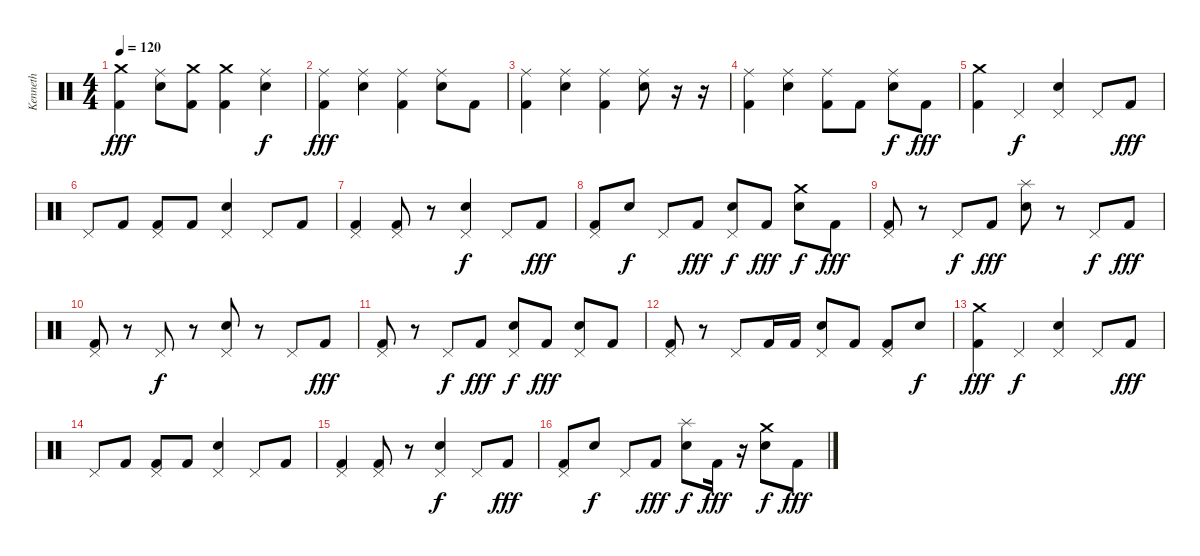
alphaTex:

\track ("Kenneth" "Kenneth") {instrument percussion}
\staff {score}
\articulation defaults
\ts (4 4)
\tempo 120
\clef neutral
\ks c
("Crash medium (hit)" "Kick (hit) 2").4{dy fff} ("Ride (middle)" "Electric Snare (hit)").8 ("Crash medium (hit)" "Kick (hit) 2").8 ("Crash medium (hit)" "Kick (hit) 2").4 ("Ride (middle)" "Electric Snare (hit)").4{dy f} |
("Ride (middle)" "Kick (hit) 2").4{dy fff} ("Ride (middle)" "Electric Snare (hit)").4 ("Ride (middle)" "Kick (hit) 2").4 ("Ride (middle)" "Electric Snare (hit)").8 "Kick (hit) 2".8 |
("Ride (middle)" "Kick (hit) 2").4 ("Ride (middle)" "Electric Snare (hit)").4 ("Ride (middle)" "Kick (hit) 2").4 ("Ride (middle)" "Electric Snare (hit)").8 r.16 r.16 |
("Ride (middle)" "Kick (hit) 2").4 ("Ride (middle)" "Electric Snare (hit)").4 ("Ride (middle)" "Kick (hit) 2").8 "Kick (hit) 2".8 ("Ride (middle)" "Electric Snare (hit)").8{dy f} "Kick (hit) 2".8{dy fff} |
("Crash medium (hit)" "Kick (hit) 2").4 "Pedal Hi-Hat (hit)".4{dy f} ("Pedal Hi-Hat (hit)" "Electric Snare (hit)").4 "Pedal Hi-Hat (hit)".8 "Kick (hit) 2".8{dy fff} |
"Pedal Hi-Hat (hit)".8 "Kick (hit) 2".8 ("Pedal Hi-Hat (hit)" "Kick (hit) 2").8 "Kick (hit) 2".8 ("Pedal Hi-Hat (hit)" "Electric Snare (hit)").4 "Pedal Hi-Hat (hit)".8 "Kick (hit) 2".8 |
("Pedal Hi-Hat (hit)" "Kick (hit) 2").4 ("Pedal Hi-Hat (hit)" "Kick (hit) 2").8 r.8 ("Pedal Hi-Hat (hit)" "Electric Snare (hit)").4{dy f} "Pedal Hi-Hat (hit)".8 "Kick (hit) 2".8{dy fff} |
("Pedal Hi-Hat (hit)" "Kick (hit) 2").8 "Electric Snare (hit)".8{dy f} "Pedal Hi-Hat (hit)".8 "Kick (hit) 2".8{dy fff} ("Pedal Hi-Hat (hit)" "Electric Snare (hit)").8{dy f} "Kick (hit) 2".8{dy fff} ("Crash medium (hit)" "Electric Snare (hit)").8{dy f} "Kick (hit) 2".8{dy fff} |
("Pedal Hi-Hat (hit)" "Kick (hit) 2").8 r.8 "Pedal Hi-Hat (hit)".8{dy f} "Kick (hit) 2".8{dy fff} ("Splash (hit)" "Electric Snare (hit)").8 r.8 "Pedal Hi-Hat (hit)".8{dy f} "Kick (hit) 2".8{dy fff} |
("Pedal Hi-Hat (hit)" "Kick (hit) 2").8 r.8 "Pedal Hi-Hat (hit)".8{dy f} r.8 ("Pedal Hi-Hat (hit)" "Electric Snare (hit)").8 r.8 "Pedal Hi-Hat (hit)".8 "Kick (hit) 2".8{dy fff} |
("Pedal Hi-Hat (hit)" "Kick (hit) 2").8 r.8 "Pedal Hi-Hat (hit)".8{dy f} "Kick (hit) 2".8{dy fff} ("Pedal Hi-Hat (hit)" "Electric Snare (hit)").8{dy f} "Kick (hit) 2".8{dy fff} ("Pedal Hi-Hat (hit)" "Electric Snare (hit)").8 "Kick (hit) 2".8 |
("Pedal Hi-Hat (hit)" "Kick (hit) 2").8 r.8 "Pedal Hi-Hat (hit)".8 "Kick (hit) 2".16 "Kick (hit) 2".16 ("Pedal Hi-Hat (hit)" "Electric Snare (hit)").8 "Kick (hit) 2".8 ("Pedal Hi-Hat (hit)" "Kick (hit) 2").8 "Electric Snare (hit)".8{dy f} |
("Crash medium (hit)" "Kick (hit) 2").4{dy fff} "Pedal Hi-Hat (hit)".4{dy f} ("Pedal Hi-Hat (hit)" "Electric Snare (hit)").4 "Pedal Hi-Hat (hit)".8 "Kick (hit) 2".8{dy fff} |
"Pedal Hi-Hat (hit)".8 "Kick (hit) 2".8 ("Pedal Hi-Hat (hit)" "Kick (hit) 2").8 "Kick (hit) 2".8 ("Pedal Hi-Hat (hit)" "Electric Snare (hit)").4 "Pedal Hi-Hat (hit)".8 "Kick (hit) 2".8 |
("Pedal Hi-Hat (hit)" "Kick (hit) 2").4 ("Pedal Hi-Hat (hit)" "Kick (hit) 2").8 r.8 ("Pedal Hi-Hat (hit)" "Electric Snare (hit)").4{dy f} "Pedal Hi-Hat (hit)".8 "Kick (hit) 2".8{dy fff} |
("Pedal Hi-Hat (hit)" "Kick (hit) 2").8 "Electric Snare (hit)".8{dy f} "Pedal Hi-Hat (hit)".8 "Kick (hit) 2".8{dy fff} ("Splash (hit)" "Electric Snare (hit)").8{dy f} "Kick (hit) 2".16{dy fff} r.16 ("Crash medium (hit)" "Electric Snare (hit)").8{dy f} "Kick (hit) 2".8{dy fff}
